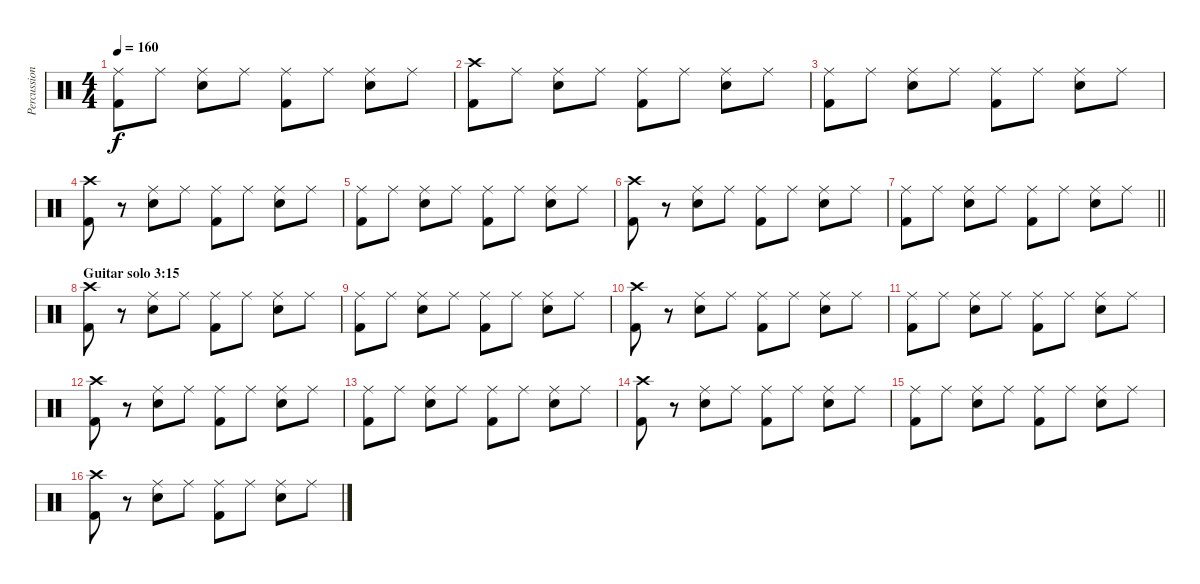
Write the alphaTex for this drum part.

\track ("Percussion - live 1983" "Percussion") {mute instrument percussion}
\staff {score}
\articulation defaults
\ts (4 4)
\tempo 160
\clef neutral
\ks c
("Ride (middle)" "Kick (hit) 2").8{dy f} "Ride (middle)".8 ("Ride (middle)" "Snare (hit) 2").8 "Ride (middle)".8 ("Ride (middle)" "Kick (hit) 2").8 "Ride (middle)".8 ("Ride (middle)" "Snare (hit) 2").8 "Ride (middle)".8 |
("Crash high (hit)" "Kick (hit) 2").8 "Ride (middle)".8 ("Ride (middle)" "Snare (hit) 2").8 "Ride (middle)".8 ("Ride (middle)" "Kick (hit) 2").8 "Ride (middle)".8 ("Ride (middle)" "Snare (hit) 2").8 "Ride (middle)".8 |
("Ride (middle)" "Kick (hit) 2").8 "Ride (middle)".8 ("Ride (middle)" "Snare (hit) 2").8 "Ride (middle)".8 ("Ride (middle)" "Kick (hit) 2").8 "Ride (middle)".8 ("Ride (middle)" "Snare (hit) 2").8 "Ride (middle)".8 |
("Crash high (hit)" "Kick (hit) 2").8 r.8 ("Ride (middle)" "Snare (hit) 2").8 "Ride (middle)".8 ("Ride (middle)" "Kick (hit) 2").8 "Ride (middle)".8 ("Ride (middle)" "Snare (hit) 2").8 "Ride (middle)".8 |
("Ride (middle)" "Kick (hit) 2").8 "Ride (middle)".8 ("Ride (middle)" "Snare (hit) 2").8 "Ride (middle)".8 ("Ride (middle)" "Kick (hit) 2").8 "Ride (middle)".8 ("Ride (middle)" "Snare (hit) 2").8 "Ride (middle)".8 |
("Crash high (hit)" "Kick (hit) 2").8 r.8 ("Ride (middle)" "Snare (hit) 2").8 "Ride (middle)".8 ("Ride (middle)" "Kick (hit) 2").8 "Ride (middle)".8 ("Ride (middle)" "Snare (hit) 2").8 "Ride (middle)".8 |
\barLineRight lightlight
("Ride (middle)" "Kick (hit) 2").8 "Ride (middle)".8 ("Ride (middle)" "Snare (hit) 2").8 "Ride (middle)".8 ("Ride (middle)" "Kick (hit) 2").8 "Ride (middle)".8 ("Ride (middle)" "Snare (hit) 2").8 "Ride (middle)".8 |
\section ("" "Guitar solo 3:15")
("Crash high (hit)" "Kick (hit) 2").8 r.8 ("Ride (middle)" "Snare (hit) 2").8 "Ride (middle)".8 ("Ride (middle)" "Kick (hit) 2").8 "Ride (middle)".8 ("Ride (middle)" "Snare (hit) 2").8 "Ride (middle)".8 |
("Ride (middle)" "Kick (hit) 2").8 "Ride (middle)".8 ("Ride (middle)" "Snare (hit) 2").8 "Ride (middle)".8 ("Ride (middle)" "Kick (hit) 2").8 "Ride (middle)".8 ("Ride (middle)" "Snare (hit) 2").8 "Ride (middle)".8 |
("Crash high (hit)" "Kick (hit) 2").8 r.8 ("Ride (middle)" "Snare (hit) 2").8 "Ride (middle)".8 ("Ride (middle)" "Kick (hit) 2").8 "Ride (middle)".8 ("Ride (middle)" "Snare (hit) 2").8 "Ride (middle)".8 |
("Ride (middle)" "Kick (hit) 2").8 "Ride (middle)".8 ("Ride (middle)" "Snare (hit) 2").8 "Ride (middle)".8 ("Ride (middle)" "Kick (hit) 2").8 "Ride (middle)".8 ("Ride (middle)" "Snare (hit) 2").8 "Ride (middle)".8 |
("Crash high (hit)" "Kick (hit) 2").8 r.8 ("Ride (middle)" "Snare (hit) 2").8 "Ride (middle)".8 ("Ride (middle)" "Kick (hit) 2").8 "Ride (middle)".8 ("Ride (middle)" "Snare (hit) 2").8 "Ride (middle)".8 |
("Ride (middle)" "Kick (hit) 2").8 "Ride (middle)".8 ("Ride (middle)" "Snare (hit) 2").8 "Ride (middle)".8 ("Ride (middle)" "Kick (hit) 2").8 "Ride (middle)".8 ("Ride (middle)" "Snare (hit) 2").8 "Ride (middle)".8 |
("Crash high (hit)" "Kick (hit) 2").8 r.8 ("Ride (middle)" "Snare (hit) 2").8 "Ride (middle)".8 ("Ride (middle)" "Kick (hit) 2").8 "Ride (middle)".8 ("Ride (middle)" "Snare (hit) 2").8 "Ride (middle)".8 |
("Ride (middle)" "Kick (hit) 2").8 "Ride (middle)".8 ("Ride (middle)" "Snare (hit) 2").8 "Ride (middle)".8 ("Ride (middle)" "Kick (hit) 2").8 "Ride (middle)".8 ("Ride (middle)" "Snare (hit) 2").8 "Ride (middle)".8 |
("Crash high (hit)" "Kick (hit) 2").8 r.8 ("Ride (middle)" "Snare (hit) 2").8 "Ride (middle)".8 ("Ride (middle)" "Kick (hit) 2").8 "Ride (middle)".8 ("Ride (middle)" "Snare (hit) 2").8 "Ride (middle)".8
